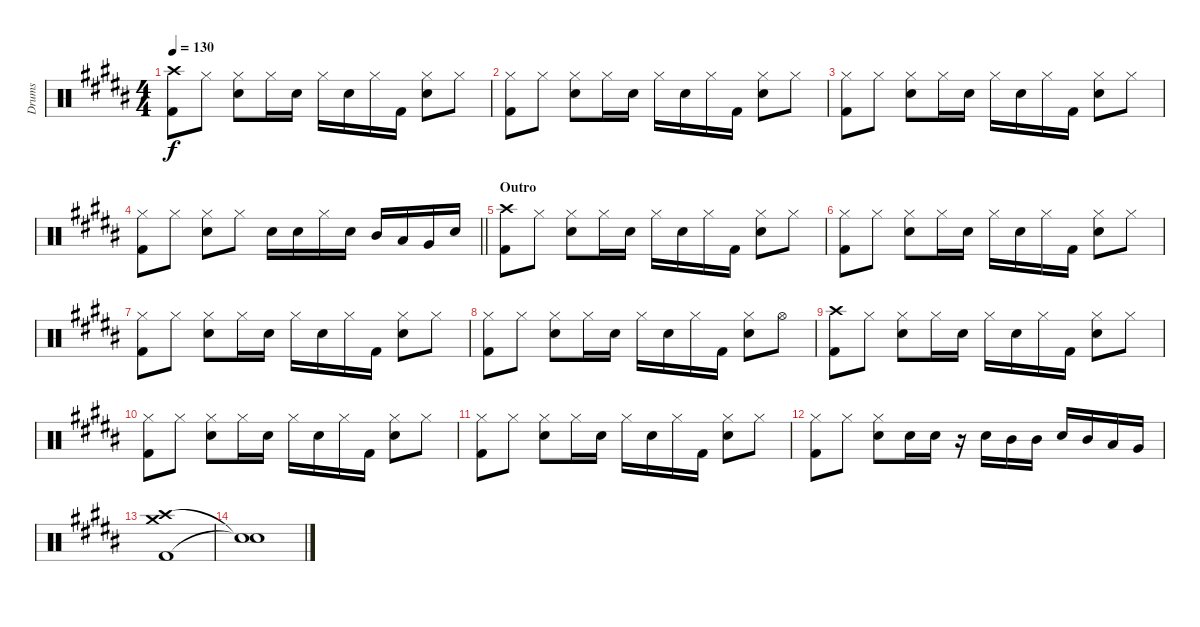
\track ("Drums" "Drums") {instrument percussion}
\staff {score}
\articulation defaults
\ts (4 4)
\tempo 130
\clef neutral
\ks b
("Kick (hit) 2" "Crash high (hit)").8{dy f} "Hi-Hat (closed)".8 ("Snare (hit) 2" "Hi-Hat (closed)").8 "Hi-Hat (closed)".16 "Snare (hit) 2".16 "Hi-Hat (closed)".16 "Snare (hit) 2".16 "Hi-Hat (closed)".16 "Kick (hit) 2".16 ("Snare (hit) 2" "Hi-Hat (closed)").8 "Hi-Hat (closed)".8 |
("Kick (hit) 2" "Hi-Hat (closed)").8 "Hi-Hat (closed)".8 ("Snare (hit) 2" "Hi-Hat (closed)").8 "Hi-Hat (closed)".16 "Snare (hit) 2".16 "Hi-Hat (closed)".16 "Snare (hit) 2".16 "Hi-Hat (closed)".16 "Kick (hit) 2".16 ("Snare (hit) 2" "Hi-Hat (closed)").8 "Hi-Hat (closed)".8 |
("Kick (hit) 2" "Hi-Hat (closed)").8 "Hi-Hat (closed)".8 ("Snare (hit) 2" "Hi-Hat (closed)").8 "Hi-Hat (closed)".16 "Snare (hit) 2".16 "Hi-Hat (closed)".16 "Snare (hit) 2".16 "Hi-Hat (closed)".16 "Kick (hit) 2".16 ("Snare (hit) 2" "Hi-Hat (closed)").8 "Hi-Hat (closed)".8 |
\barLineRight lightlight
("Kick (hit) 2" "Hi-Hat (closed)").8 "Hi-Hat (closed)".8 ("Snare (hit) 2" "Hi-Hat (closed)").8 "Hi-Hat (closed)".8 "Snare (hit) 2".16 "Snare (hit) 2".16 "Hi-Hat (closed)".16 "Snare (hit) 2".16 "Mid Tom (hit)".16 "Low Tom (hit)".16 "Very Low Tom (hit)".16 "Snare (hit) 2".16 |
\section ("" "Outro")
("Kick (hit) 2" "Crash high (hit)").8 "Hi-Hat (closed)".8 ("Snare (hit) 2" "Hi-Hat (closed)").8 "Hi-Hat (closed)".16 "Snare (hit) 2".16 "Hi-Hat (closed)".16 "Snare (hit) 2".16 "Hi-Hat (closed)".16 "Kick (hit) 2".16 ("Snare (hit) 2" "Hi-Hat (closed)").8 "Hi-Hat (closed)".8 |
("Kick (hit) 2" "Hi-Hat (closed)").8 "Hi-Hat (closed)".8 ("Snare (hit) 2" "Hi-Hat (closed)").8 "Hi-Hat (closed)".16 "Snare (hit) 2".16 "Hi-Hat (closed)".16 "Snare (hit) 2".16 "Hi-Hat (closed)".16 "Kick (hit) 2".16 ("Snare (hit) 2" "Hi-Hat (closed)").8 "Hi-Hat (closed)".8 |
("Kick (hit) 2" "Hi-Hat (closed)").8 "Hi-Hat (closed)".8 ("Snare (hit) 2" "Hi-Hat (closed)").8 "Hi-Hat (closed)".16 "Snare (hit) 2".16 "Hi-Hat (closed)".16 "Snare (hit) 2".16 "Hi-Hat (closed)".16 "Kick (hit) 2".16 ("Snare (hit) 2" "Hi-Hat (closed)").8 "Hi-Hat (closed)".8 |
("Kick (hit) 2" "Hi-Hat (closed)").8 "Hi-Hat (closed)".8 ("Snare (hit) 2" "Hi-Hat (closed)").8 "Hi-Hat (closed)".16 "Snare (hit) 2".16 "Hi-Hat (closed)".16 "Snare (hit) 2".16 "Hi-Hat (closed)".16 "Kick (hit) 2".16 ("Snare (hit) 2" "Hi-Hat (closed)").8 "Hi-Hat (open)".8 |
("Kick (hit) 2" "Crash high (hit)").8 "Hi-Hat (closed)".8 ("Snare (hit) 2" "Hi-Hat (closed)").8 "Hi-Hat (closed)".16 "Snare (hit) 2".16 "Hi-Hat (closed)".16 "Snare (hit) 2".16 "Hi-Hat (closed)".16 "Kick (hit) 2".16 ("Snare (hit) 2" "Hi-Hat (closed)").8 "Hi-Hat (closed)".8 |
("Kick (hit) 2" "Hi-Hat (closed)").8 "Hi-Hat (closed)".8 ("Snare (hit) 2" "Hi-Hat (closed)").8 "Hi-Hat (closed)".16 "Snare (hit) 2".16 "Hi-Hat (closed)".16 "Snare (hit) 2".16 "Hi-Hat (closed)".16 "Kick (hit) 2".16 ("Snare (hit) 2" "Hi-Hat (closed)").8 "Hi-Hat (closed)".8 |
("Kick (hit) 2" "Hi-Hat (closed)").8 "Hi-Hat (closed)".8 ("Snare (hit) 2" "Hi-Hat (closed)").8 "Hi-Hat (closed)".16 "Snare (hit) 2".16 "Hi-Hat (closed)".16 "Snare (hit) 2".16 "Hi-Hat (closed)".16 "Kick (hit) 2".16 ("Snare (hit) 2" "Hi-Hat (closed)").8 "Hi-Hat (closed)".8 |
("Kick (hit) 2" "Hi-Hat (closed)").8 "Hi-Hat (closed)".8 ("Snare (hit) 2" "Hi-Hat (closed)").8 "Snare (hit) 2".16 "Snare (hit) 2".16 r.16 "Snare (hit) 2".16 "Mid Tom (hit)".16 "Mid Tom (hit)".16 "Snare (hit) 2".16 "Mid Tom (hit)".16 "Low Tom (hit)".16 "Very Low Tom (hit)".16 |
("Kick (hit) 2" "Crash high (hit)" "Crash medium (hit)").1 |
("Snare (hit)"{t} "Snare (hit)"{t}).1
